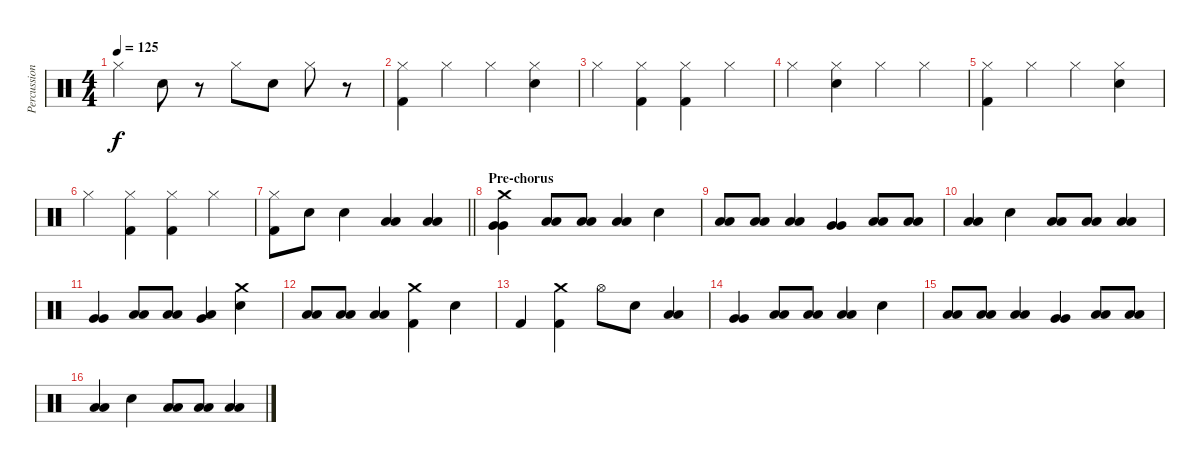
\track ("Percussion" "Percussion") {instrument percussion}
\staff {score}
\articulation defaults
\ts (4 4)
\tempo 125
\clef neutral
\ks c "Hi-Hat (closed)".4{dy f} "Electric Snare (hit)".8
r.8 "Hi-Hat (closed)".8 "Electric Snare (hit)".8 "Hi-Hat (closed)".8 r.8 |
("Hi-Hat (closed)" "Kick (hit) 2").4 "Hi-Hat (closed)".4 "Hi-Hat (closed)".4 ("Hi-Hat (closed)" "Electric Snare (hit)").4 |
"Hi-Hat (closed)".4 ("Hi-Hat (closed)" "Kick (hit) 2").4 ("Hi-Hat (closed)" "Kick (hit) 2").4 "Hi-Hat (closed)".4 |
"Hi-Hat (closed)".4 ("Hi-Hat (closed)" "Electric Snare (hit)").4 "Hi-Hat (closed)".4 "Hi-Hat (closed)".4 |
("Hi-Hat (closed)" "Kick (hit) 2").4 "Hi-Hat (closed)".4 "Hi-Hat (closed)".4 ("Hi-Hat (closed)" "Electric Snare (hit)").4 |
"Hi-Hat (closed)".4 ("Hi-Hat (closed)" "Kick (hit) 2").4 ("Hi-Hat (closed)" "Kick (hit) 2").4 "Hi-Hat (closed)".4 |
\barLineRight lightlight
("Hi-Hat (closed)" "Kick (hit) 2").8 "Electric Snare (hit)".8 "Electric Snare (hit)".4 ("Low Floor Tom (hit)" "Low Floor Tom (hit)").4 ("Low Tom (hit)" "Low Tom (hit)").4 |
\section ("" "Pre-chorus")
("Crash medium (hit)" "Very Low Tom (hit)" "Very Low Tom (hit)").4 ("Low Tom (hit)" "Low Tom (hit)").8 ("Low Floor Tom (hit)" "Low Floor Tom (hit)").8 ("Low Tom (hit)" "Low Tom (hit)").4 "Electric Snare (hit)".4 |
("Low Tom (hit)" "Low Tom (hit)").8 ("Low Floor Tom (hit)" "Low Floor Tom (hit)").8 ("Low Tom (hit)" "Low Tom (hit)").4 ("Very Low Tom (hit)" "Very Low Tom (hit)").4 ("Low Tom (hit)" "Low Tom (hit)").8 ("Low Floor Tom (hit)" "Low Floor Tom (hit)").8 |
("Low Tom (hit)" "Low Tom (hit)").4 "Electric Snare (hit)".4 ("Low Floor Tom (hit)" "Low Floor Tom (hit)").8 ("Low Tom (hit)" "Low Tom (hit)").8 ("Low Floor Tom (hit)" "Low Floor Tom (hit)").4 |
("Very Low Tom (hit)" "Very Low Tom (hit)").4 ("Low Tom (hit)" "Low Tom (hit)").8 ("Low Floor Tom (hit)" "Low Floor Tom (hit)").8 ("Very Low Tom (hit)" "Low Tom (hit)").4 ("Electric Snare (hit)" "Crash medium (hit)").4 |
("Low Tom (hit)" "Low Tom (hit)").8 ("Low Floor Tom (hit)" "Low Floor Tom (hit)").8 ("Low Tom (hit)" "Low Tom (hit)").4 ("Crash medium (hit)" "Kick (hit) 2").4 "Electric Snare (hit)".4 |
"Kick (hit) 2".4 ("Crash medium (hit)" "Kick (hit) 2").4 "Hi-Hat (open)".8 "Electric Snare (hit)".8 ("Low Tom (hit)" "Low Tom (hit)").4 |
("Very Low Tom (hit)" "Very Low Tom (hit)").4 ("Low Tom (hit)" "Low Tom (hit)").8 ("Low Floor Tom (hit)" "Low Floor Tom (hit)").8 ("Low Tom (hit)" "Low Tom (hit)").4 "Electric Snare (hit)".4 |
("Low Tom (hit)" "Low Tom (hit)").8 ("Low Floor Tom (hit)" "Low Floor Tom (hit)").8 ("Low Tom (hit)" "Low Tom (hit)").4 ("Very Low Tom (hit)" "Very Low Tom (hit)").4 ("Low Tom (hit)" "Low Tom (hit)").8 ("Low Floor Tom (hit)" "Low Floor Tom (hit)").8 |
("Low Tom (hit)" "Low Tom (hit)").4 "Electric Snare (hit)".4 ("Low Floor Tom (hit)" "Low Floor Tom (hit)").8 ("Low Tom (hit)" "Low Tom (hit)").8 ("Low Floor Tom (hit)" "Low Floor Tom (hit)").4
